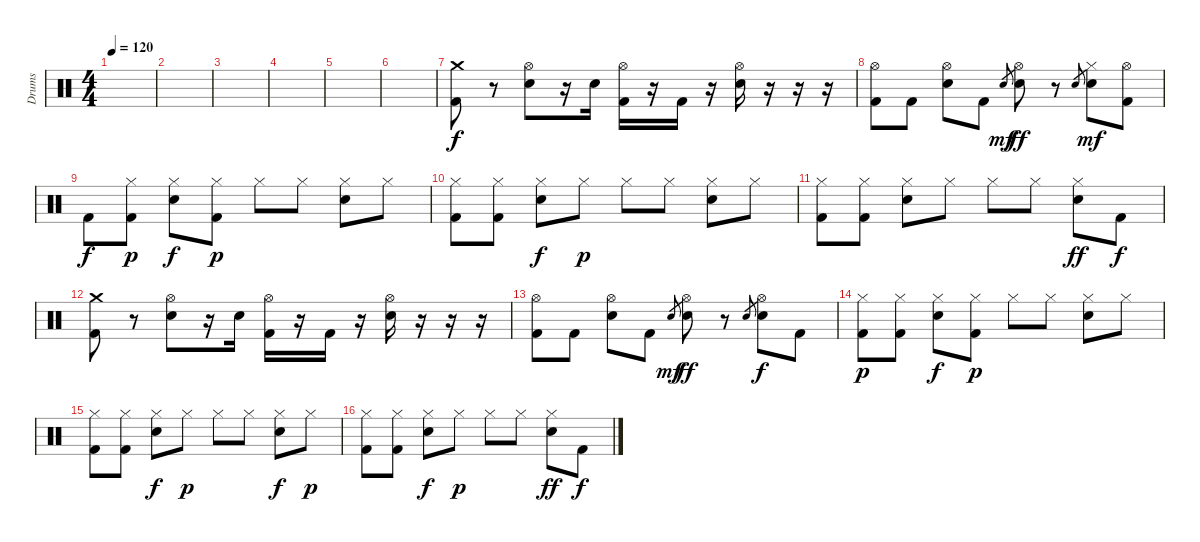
\track ("Drums" "Drums") {instrument percussion}
\staff {score}
\articulation defaults
\ts (4 4)
\tempo 120
\clef neutral
\ks c
|
|
|
|
|
|
("Crash medium (hit)" "Kick (hit) 2").8 r.8 ("Hi-Hat (open)" "Snare (hit) 2").8 r.16 "Snare (hit) 2".16 ("Hi-Hat (open)" "Kick (hit) 2").16 r.16 "Kick (hit) 2".16 r.16 ("Hi-Hat (open)" "Snare (hit) 2").16 r.16 r.16 r.16 |
("Hi-Hat (open)" "Kick (hit) 2").8 "Kick (hit) 2".8 ("Hi-Hat (open)" "Snare (hit) 2").8 "Kick (hit) 2".8 "Snare (hit) 2".8{gr dy mf} ("Hi-Hat (open)" "Snare (hit) 2").8{dy ff} r.8 "Snare (hit) 2".8{gr} ("Hi-Hat (closed)" "Snare (hit) 2").8{dy mf} ("Hi-Hat (open)" "Kick (hit) 2").8 |
"Kick (hit) 2".8{dy f} ("Hi-Hat (closed)" "Kick (hit) 2").8{dy p} ("Hi-Hat (closed)" "Snare (hit) 2").8{dy f} ("Hi-Hat (closed)" "Kick (hit) 2").8{dy p} "Hi-Hat (closed)".8 "Hi-Hat (closed)".8 ("Hi-Hat (closed)" "Snare (hit) 2").8 "Hi-Hat (closed)".8 |
("Hi-Hat (closed)" "Kick (hit) 2").8 ("Hi-Hat (closed)" "Kick (hit) 2").8 ("Hi-Hat (closed)" "Snare (hit) 2").8{dy f} "Hi-Hat (closed)".8{dy p} "Hi-Hat (closed)".8 "Hi-Hat (closed)".8 ("Hi-Hat (closed)" "Snare (hit) 2").8 "Hi-Hat (closed)".8 |
("Hi-Hat (closed)" "Kick (hit) 2").8 ("Hi-Hat (closed)" "Kick (hit) 2").8 ("Hi-Hat (closed)" "Snare (hit) 2").8 "Hi-Hat (closed)".8 "Hi-Hat (closed)".8 "Hi-Hat (closed)".8 ("Hi-Hat (closed)" "Snare (hit) 2").8{dy ff} "Kick (hit) 2".8{dy f} |
("Crash medium (hit)" "Kick (hit) 2").8 r.8 ("Hi-Hat (open)" "Snare (hit) 2").8 r.16 "Snare (hit) 2".16 ("Hi-Hat (open)" "Kick (hit) 2").16 r.16 "Kick (hit) 2".16 r.16 ("Hi-Hat (open)" "Snare (hit) 2").16 r.16 r.16 r.16 |
("Hi-Hat (open)" "Kick (hit) 2").8 "Kick (hit) 2".8 ("Hi-Hat (open)" "Snare (hit) 2").8 "Kick (hit) 2".8 "Snare (hit) 2".8{gr dy mf} ("Hi-Hat (open)" "Snare (hit) 2").8{dy ff} r.8 "Snare (hit) 2".8{gr} ("Hi-Hat (open)" "Snare (hit) 2").8{dy f} "Kick (hit) 2".8 |
("Hi-Hat (closed)" "Kick (hit) 2").8{dy p} ("Hi-Hat (closed)" "Kick (hit) 2").8 ("Hi-Hat (closed)" "Snare (hit) 2").8{dy f} ("Hi-Hat (closed)" "Kick (hit) 2").8{dy p} "Hi-Hat (closed)".8 "Hi-Hat (closed)".8 ("Hi-Hat (closed)" "Snare (hit) 2").8 "Hi-Hat (closed)".8 |
("Hi-Hat (closed)" "Kick (hit) 2").8 ("Hi-Hat (closed)" "Kick (hit) 2").8 ("Hi-Hat (closed)" "Snare (hit) 2").8{dy f} "Hi-Hat (closed)".8{dy p} "Hi-Hat (closed)".8 "Hi-Hat (closed)".8 ("Hi-Hat (closed)" "Snare (hit) 2").8{dy f} "Hi-Hat (closed)".8{dy p} |
("Hi-Hat (closed)" "Kick (hit) 2").8 ("Hi-Hat (closed)" "Kick (hit) 2").8 ("Hi-Hat (closed)" "Snare (hit) 2").8{dy f} "Hi-Hat (closed)".8{dy p} "Hi-Hat (closed)".8 "Hi-Hat (closed)".8 ("Hi-Hat (closed)" "Snare (hit) 2").8{dy ff} "Kick (hit) 2".8{dy f}
